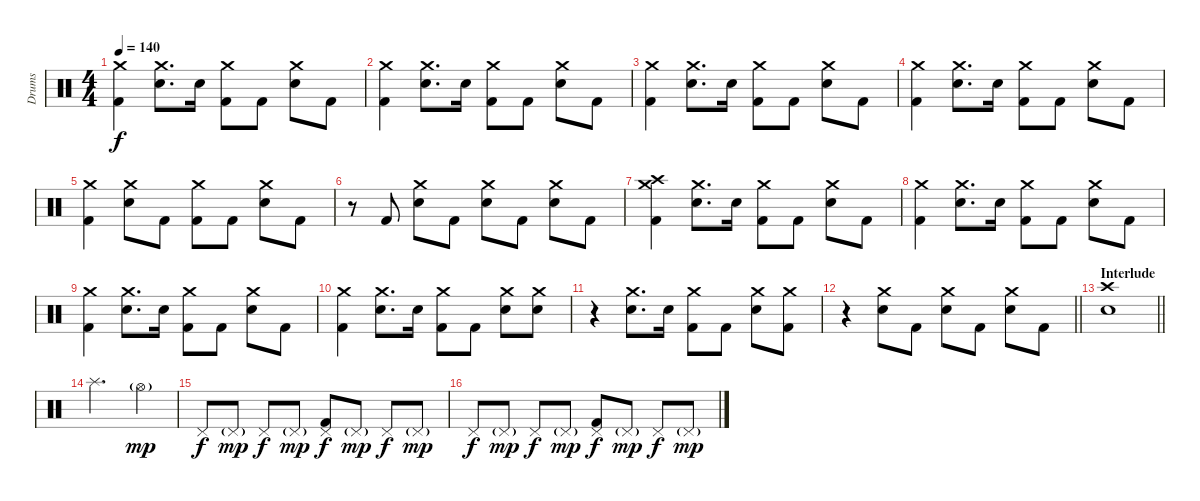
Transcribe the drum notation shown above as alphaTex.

\track ("Drums" "Drums") {instrument percussion}
\staff {score}
\articulation defaults
\ts (4 4)
\tempo 140
\clef neutral
\ks c
("Crash medium (hit)" "Kick (hit) 2").4{dy f} ("Crash medium (hit)" "Electric Snare (hit)").8{d} "Electric Snare (hit)".16 ("Crash medium (hit)" "Kick (hit) 2").8 "Kick (hit) 2".8 ("Crash medium (hit)" "Electric Snare (hit)").8 "Kick (hit) 2".8 |
("Crash medium (hit)" "Kick (hit) 2").4 ("Crash medium (hit)" "Electric Snare (hit)").8{d} "Electric Snare (hit)".16 ("Crash medium (hit)" "Kick (hit) 2").8 "Kick (hit) 2".8 ("Crash medium (hit)" "Electric Snare (hit)").8 "Kick (hit) 2".8 |
("Crash medium (hit)" "Kick (hit) 2").4 ("Crash medium (hit)" "Electric Snare (hit)").8{d} "Electric Snare (hit)".16 ("Crash medium (hit)" "Kick (hit) 2").8 "Kick (hit) 2".8 ("Crash medium (hit)" "Electric Snare (hit)").8 "Kick (hit) 2".8 |
("Crash medium (hit)" "Kick (hit) 2").4 ("Crash medium (hit)" "Electric Snare (hit)").8{d} "Electric Snare (hit)".16 ("Crash medium (hit)" "Kick (hit) 2").8 "Kick (hit) 2".8 ("Crash medium (hit)" "Electric Snare (hit)").8 "Kick (hit) 2".8 |
("Crash medium (hit)" "Kick (hit) 2").4 ("Crash medium (hit)" "Electric Snare (hit)").8 "Kick (hit) 2".8 ("Crash medium (hit)" "Kick (hit) 2").8 "Kick (hit) 2".8 ("Crash medium (hit)" "Electric Snare (hit)").8 "Kick (hit) 2".8 |
r.8 "Kick (hit) 2".8 ("Crash medium (hit)" "Electric Snare (hit)").8 "Kick (hit) 2".8 ("Crash medium (hit)" "Electric Snare (hit)").8 "Kick (hit) 2".8 ("Crash medium (hit)" "Electric Snare (hit)").8 "Kick (hit) 2".8 |
("Crash high (hit)" "Crash medium (hit)" "Kick (hit) 2").4 ("Crash medium (hit)" "Electric Snare (hit)").8{d} "Electric Snare (hit)".16 ("Crash medium (hit)" "Kick (hit) 2").8 "Kick (hit) 2".8 ("Crash medium (hit)" "Electric Snare (hit)").8 "Kick (hit) 2".8 |
("Crash medium (hit)" "Kick (hit) 2").4 ("Crash medium (hit)" "Electric Snare (hit)").8{d} "Electric Snare (hit)".16 ("Crash medium (hit)" "Kick (hit) 2").8 "Kick (hit) 2".8 ("Crash medium (hit)" "Electric Snare (hit)").8 "Kick (hit) 2".8 |
("Crash medium (hit)" "Kick (hit) 2").4 ("Crash medium (hit)" "Electric Snare (hit)").8{d} "Electric Snare (hit)".16 ("Crash medium (hit)" "Kick (hit) 2").8 "Kick (hit) 2".8 ("Crash medium (hit)" "Electric Snare (hit)").8 "Kick (hit) 2".8 |
("Crash medium (hit)" "Kick (hit) 2").4 ("Crash medium (hit)" "Electric Snare (hit)").8{d} "Electric Snare (hit)".16 ("Crash medium (hit)" "Kick (hit) 2").8 "Kick (hit) 2".8 ("Crash medium (hit)" "Electric Snare (hit)").8 ("Crash medium (hit)" "Electric Snare (hit)").8 |
r.4 ("Crash medium (hit)" "Electric Snare (hit)").8{d} "Electric Snare (hit)".16 ("Crash medium (hit)" "Kick (hit) 2").8 "Kick (hit) 2".8 ("Crash medium (hit)" "Electric Snare (hit)").8 ("Crash medium (hit)" "Kick (hit) 2").8 |
\barLineRight lightlight
r.4 ("Crash medium (hit)" "Electric Snare (hit)").8 "Kick (hit) 2".8 ("Crash medium (hit)" "Electric Snare (hit)").8 "Kick (hit) 2".8 ("Crash medium (hit)" "Electric Snare (hit)").8 "Kick (hit) 2".8 |
\section ("" "Interlude")
\barLineRight lightlight
("Crash high (hit)" "Electric Snare (hit)").1 |
"Splash (hit)".2{d} "Hi-Hat (open)"{g}.4{dy mp} |
"Pedal Hi-Hat (hit)".8{dy f} "Pedal Hi-Hat (hit)"{g}.8{dy mp} "Pedal Hi-Hat (hit)".8{dy f} "Pedal Hi-Hat (hit)"{g}.8{dy mp} ("Pedal Hi-Hat (hit)" "Kick (hit) 2").8{dy f} "Pedal Hi-Hat (hit)"{g}.8{dy mp} "Pedal Hi-Hat (hit)".8{dy f} "Pedal Hi-Hat (hit)"{g}.8{dy mp} |
"Pedal Hi-Hat (hit)".8{dy f} "Pedal Hi-Hat (hit)"{g}.8{dy mp} "Pedal Hi-Hat (hit)".8{dy f} "Pedal Hi-Hat (hit)"{g}.8{dy mp} ("Pedal Hi-Hat (hit)" "Kick (hit) 2").8{dy f} "Pedal Hi-Hat (hit)"{g}.8{dy mp} "Pedal Hi-Hat (hit)".8{dy f} "Pedal Hi-Hat (hit)"{g}.8{dy mp}
